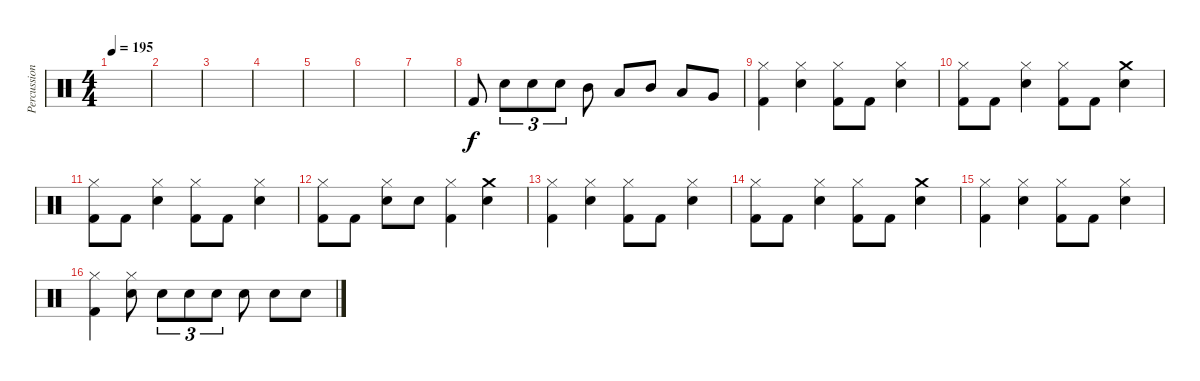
\track ("Percussion" "Percussion") {instrument percussion}
\staff {score}
\articulation defaults
\ts (4 4)
\tempo 195
\clef neutral
\ks c
|
|
|
|
|
|
|
"Kick (hit) 2".8 "Snare (hit) 2".8{tu (3 2)} "Snare (hit) 2".8{tu (3 2)} "Snare (hit) 2".8{tu (3 2)} "Mid Tom (hit)".8 "Low Tom (hit)".8 "Mid Tom (hit)".8 "Low Tom (hit)".8 "Very Low Tom (hit)".8 |
("Hi-Hat (closed)" "Kick (hit) 2").4 ("Hi-Hat (closed)" "Snare (hit) 2").4 ("Hi-Hat (closed)" "Kick (hit) 2").8 "Kick (hit) 2".8 ("Hi-Hat (closed)" "Snare (hit) 2").4 |
("Hi-Hat (closed)" "Kick (hit) 2").8 "Kick (hit) 2".8 ("Hi-Hat (closed)" "Snare (hit) 2").4 ("Hi-Hat (closed)" "Kick (hit) 2").8 "Kick (hit) 2".8 ("Crash medium (hit)" "Snare (hit) 2").4 |
("Hi-Hat (closed)" "Kick (hit) 2").8 "Kick (hit) 2".8 ("Hi-Hat (closed)" "Snare (hit) 2").4 ("Hi-Hat (closed)" "Kick (hit) 2").8 "Kick (hit) 2".8 ("Hi-Hat (closed)" "Snare (hit) 2").4 |
("Hi-Hat (closed)" "Kick (hit) 2").8 "Kick (hit) 2".8 ("Hi-Hat (closed)" "Snare (hit) 2").8 "Snare (hit) 2".8 ("Hi-Hat (closed)" "Kick (hit) 2").4 ("Crash medium (hit)" "Snare (hit) 2").4 |
("Hi-Hat (closed)" "Kick (hit) 2").4 ("Hi-Hat (closed)" "Snare (hit) 2").4 ("Hi-Hat (closed)" "Kick (hit) 2").8 "Kick (hit) 2".8 ("Hi-Hat (closed)" "Snare (hit) 2").4 |
("Hi-Hat (closed)" "Kick (hit) 2").8 "Kick (hit) 2".8 ("Hi-Hat (closed)" "Snare (hit) 2").4 ("Hi-Hat (closed)" "Kick (hit) 2").8 "Kick (hit) 2".8 ("Crash medium (hit)" "Snare (hit) 2").4 |
("Hi-Hat (closed)" "Kick (hit) 2").4 ("Hi-Hat (closed)" "Snare (hit) 2").4 ("Hi-Hat (closed)" "Kick (hit) 2").8 "Kick (hit) 2".8 ("Hi-Hat (closed)" "Snare (hit) 2").4 |
("Hi-Hat (closed)" "Kick (hit) 2").4 ("Hi-Hat (closed)" "Snare (hit) 2").8 "Snare (hit) 2".8{tu (3 2)} "Snare (hit) 2".8{tu (3 2)} "Snare (hit) 2".8{tu (3 2)} "Snare (hit) 2".8 "Snare (hit) 2".8 "Snare (hit) 2".8
